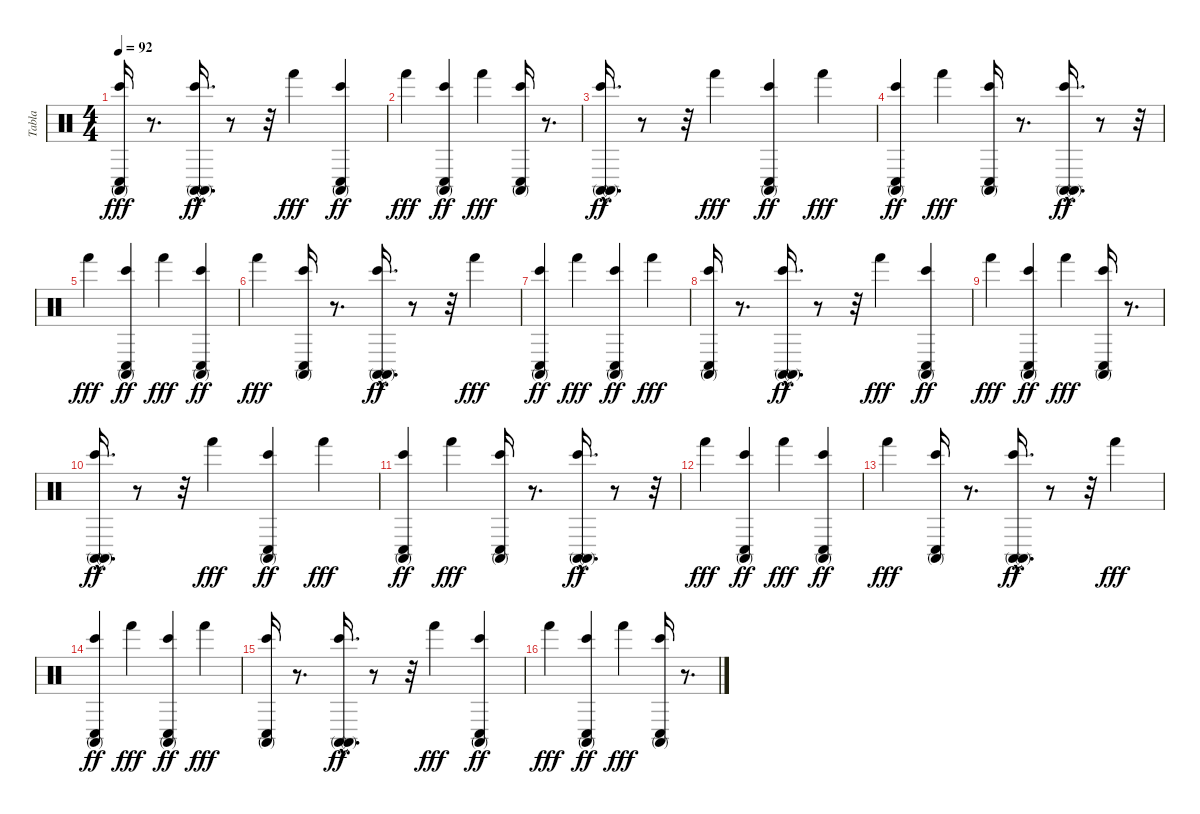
\track ("Tabla" "Tabla") {instrument percussion}
\staff {score}
\articulation defaults
\ts (4 4)
\tempo 92
\clef neutral
\ks c
("Conga high (mute)" "Bongo High (hit)" "Conga low (hit)").16{dy fff} r.8{d} ("Conga high (mute)" "Conga high (mute)"{hac} "Bongo High (hit)").16{d dy ff} r.8 r.32 "Hand (hit)".4{dy fff} ("Conga low (hit)" "Conga high (mute)" "Bongo High (hit)").4{dy ff} |
"Hand (hit)".4{dy fff} ("Conga low (hit)" "Conga high (mute)" "Bongo High (hit)").4{dy ff} "Hand (hit)".4{dy fff} ("Conga high (mute)" "Bongo High (hit)" "Conga low (hit)").16 r.8{d} |
("Conga high (mute)" "Conga high (mute)"{hac} "Bongo High (hit)").16{d dy ff} r.8 r.32 "Hand (hit)".4{dy fff} ("Conga low (hit)" "Conga high (mute)" "Bongo High (hit)").4{dy ff} "Hand (hit)".4{dy fff} |
("Conga low (hit)" "Conga high (mute)" "Bongo High (hit)").4{dy ff} "Hand (hit)".4{dy fff} ("Conga high (mute)" "Bongo High (hit)" "Conga low (hit)").16 r.8{d} ("Conga high (mute)" "Conga high (mute)"{hac} "Bongo High (hit)").16{d dy ff} r.8 r.32 |
"Hand (hit)".4{dy fff} ("Conga low (hit)" "Conga high (mute)" "Bongo High (hit)").4{dy ff} "Hand (hit)".4{dy fff} ("Conga low (hit)" "Conga high (mute)" "Bongo High (hit)").4{dy ff} |
"Hand (hit)".4{dy fff} ("Conga high (mute)" "Bongo High (hit)" "Conga low (hit)").16 r.8{d} ("Conga high (mute)" "Conga high (mute)"{hac} "Bongo High (hit)").16{d dy ff} r.8 r.32 "Hand (hit)".4{dy fff} |
("Conga low (hit)" "Conga high (mute)" "Bongo High (hit)").4{dy ff} "Hand (hit)".4{dy fff} ("Conga low (hit)" "Conga high (mute)" "Bongo High (hit)").4{dy ff} "Hand (hit)".4{dy fff} |
("Conga high (mute)" "Bongo High (hit)" "Conga low (hit)").16 r.8{d} ("Conga high (mute)" "Conga high (mute)"{hac} "Bongo High (hit)").16{d dy ff} r.8 r.32 "Hand (hit)".4{dy fff} ("Conga low (hit)" "Conga high (mute)" "Bongo High (hit)").4{dy ff} |
"Hand (hit)".4{dy fff} ("Conga low (hit)" "Conga high (mute)" "Bongo High (hit)").4{dy ff} "Hand (hit)".4{dy fff} ("Conga high (mute)" "Bongo High (hit)" "Conga low (hit)").16 r.8{d} |
("Conga high (mute)" "Conga high (mute)"{hac} "Bongo High (hit)").16{d dy ff} r.8 r.32 "Hand (hit)".4{dy fff} ("Conga low (hit)" "Conga high (mute)" "Bongo High (hit)").4{dy ff} "Hand (hit)".4{dy fff} |
("Conga low (hit)" "Conga high (mute)" "Bongo High (hit)").4{dy ff} "Hand (hit)".4{dy fff} ("Conga high (mute)" "Bongo High (hit)" "Conga low (hit)").16 r.8{d} ("Conga high (mute)" "Conga high (mute)"{hac} "Bongo High (hit)").16{d dy ff} r.8 r.32 |
"Hand (hit)".4{dy fff} ("Conga low (hit)" "Conga high (mute)" "Bongo High (hit)").4{dy ff} "Hand (hit)".4{dy fff} ("Conga low (hit)" "Conga high (mute)" "Bongo High (hit)").4{dy ff} |
"Hand (hit)".4{dy fff} ("Conga high (mute)" "Bongo High (hit)" "Conga low (hit)").16 r.8{d} ("Conga high (mute)" "Conga high (mute)"{hac} "Bongo High (hit)").16{d dy ff} r.8 r.32 "Hand (hit)".4{dy fff} |
("Conga low (hit)" "Conga high (mute)" "Bongo High (hit)").4{dy ff} "Hand (hit)".4{dy fff} ("Conga low (hit)" "Conga high (mute)" "Bongo High (hit)").4{dy ff} "Hand (hit)".4{dy fff} |
("Conga high (mute)" "Bongo High (hit)" "Conga low (hit)").16 r.8{d} ("Conga high (mute)" "Conga high (mute)"{hac} "Bongo High (hit)").16{d dy ff} r.8 r.32 "Hand (hit)".4{dy fff} ("Conga low (hit)" "Conga high (mute)" "Bongo High (hit)").4{dy ff} |
"Hand (hit)".4{dy fff} ("Conga low (hit)" "Conga high (mute)" "Bongo High (hit)").4{dy ff} "Hand (hit)".4{dy fff} ("Conga high (mute)" "Bongo High (hit)" "Conga low (hit)").16 r.8{d}
